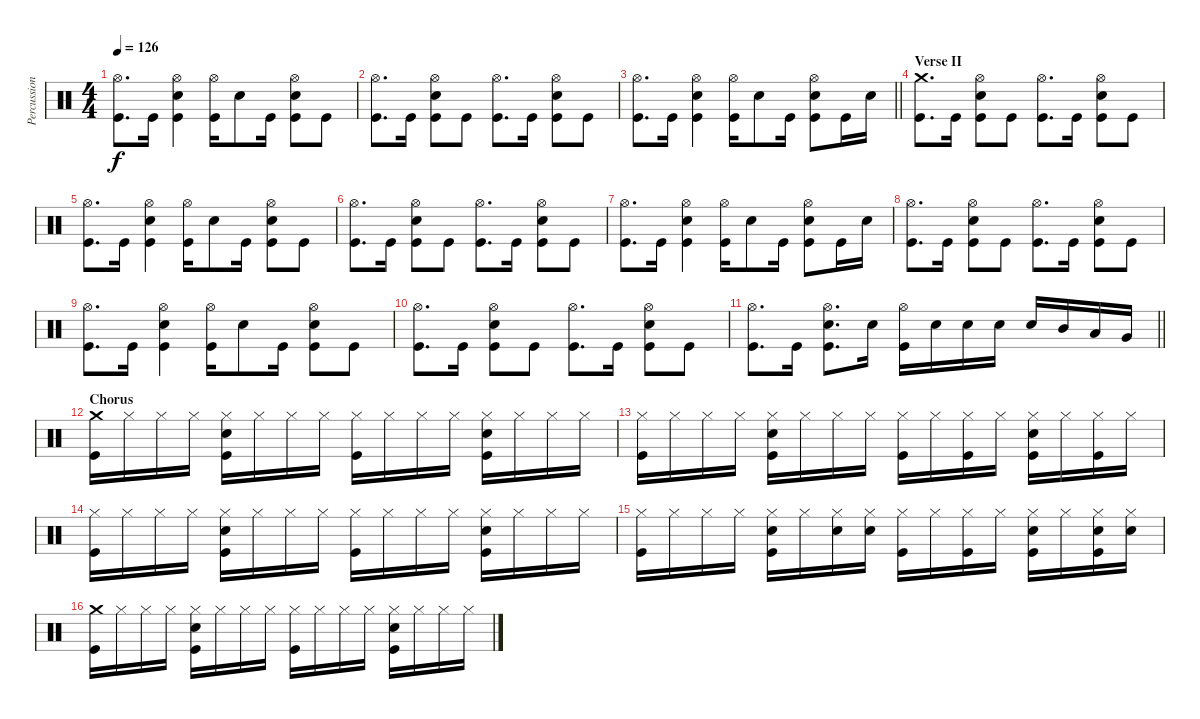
\track ("Percussion" "Percussion") {instrument percussion}
\staff {score}
\articulation defaults
\ts (4 4)
\tempo 126
\clef neutral
\ks c
("Hi-Hat (open)" "Kick (hit)").8{d dy f} "Kick (hit)".16 ("Hi-Hat (open)" "Electric Snare (hit)" "Kick (hit)").4 ("Hi-Hat (open)" "Kick (hit)").16 "Electric Snare (hit)".8 "Kick (hit)".16 ("Hi-Hat (open)" "Electric Snare (hit)" "Kick (hit)").8 "Kick (hit)".8 |
("Hi-Hat (open)" "Kick (hit)").8{d} "Kick (hit)".16 ("Hi-Hat (open)" "Electric Snare (hit)" "Kick (hit)").8 "Kick (hit)".8 ("Hi-Hat (open)" "Kick (hit)").8{d} "Kick (hit)".16 ("Hi-Hat (open)" "Electric Snare (hit)" "Kick (hit)").8 "Kick (hit)".8 |
\barLineRight lightlight
("Hi-Hat (open)" "Kick (hit)").8{d} "Kick (hit)".16 ("Hi-Hat (open)" "Electric Snare (hit)" "Kick (hit)").4 ("Hi-Hat (open)" "Kick (hit)").16 "Electric Snare (hit)".8 "Kick (hit)".16 ("Hi-Hat (open)" "Electric Snare (hit)" "Kick (hit)").8 "Kick (hit)".16 "Electric Snare (hit)".16 |
\section ("" "Verse II")
("Crash medium (hit)" "Kick (hit)").8{d} "Kick (hit)".16 ("Hi-Hat (open)" "Electric Snare (hit)" "Kick (hit)").8 "Kick (hit)".8 ("Hi-Hat (open)" "Kick (hit)").8{d} "Kick (hit)".16 ("Hi-Hat (open)" "Electric Snare (hit)" "Kick (hit)").8 "Kick (hit)".8 |
("Hi-Hat (open)" "Kick (hit)").8{d} "Kick (hit)".16 ("Hi-Hat (open)" "Electric Snare (hit)" "Kick (hit)").4 ("Hi-Hat (open)" "Kick (hit)").16 "Electric Snare (hit)".8 "Kick (hit)".16 ("Hi-Hat (open)" "Electric Snare (hit)" "Kick (hit)").8 "Kick (hit)".8 |
("Hi-Hat (open)" "Kick (hit)").8{d} "Kick (hit)".16 ("Hi-Hat (open)" "Electric Snare (hit)" "Kick (hit)").8 "Kick (hit)".8 ("Hi-Hat (open)" "Kick (hit)").8{d} "Kick (hit)".16 ("Hi-Hat (open)" "Electric Snare (hit)" "Kick (hit)").8 "Kick (hit)".8 |
("Hi-Hat (open)" "Kick (hit)").8{d} "Kick (hit)".16 ("Hi-Hat (open)" "Electric Snare (hit)" "Kick (hit)").4 ("Hi-Hat (open)" "Kick (hit)").16 "Electric Snare (hit)".8 "Kick (hit)".16 ("Hi-Hat (open)" "Electric Snare (hit)" "Kick (hit)").8 "Kick (hit)".16 "Electric Snare (hit)".16 |
("Hi-Hat (open)" "Kick (hit)").8{d} "Kick (hit)".16 ("Hi-Hat (open)" "Electric Snare (hit)" "Kick (hit)").8 "Kick (hit)".8 ("Hi-Hat (open)" "Kick (hit)").8{d} "Kick (hit)".16 ("Hi-Hat (open)" "Electric Snare (hit)" "Kick (hit)").8 "Kick (hit)".8 |
("Hi-Hat (open)" "Kick (hit)").8{d} "Kick (hit)".16 ("Hi-Hat (open)" "Electric Snare (hit)" "Kick (hit)").4 ("Hi-Hat (open)" "Kick (hit)").16 "Electric Snare (hit)".8 "Kick (hit)".16 ("Hi-Hat (open)" "Electric Snare (hit)" "Kick (hit)").8 "Kick (hit)".8 |
("Hi-Hat (open)" "Kick (hit)").8{d} "Kick (hit)".16 ("Hi-Hat (open)" "Electric Snare (hit)" "Kick (hit)").8 "Kick (hit)".8 ("Hi-Hat (open)" "Kick (hit)").8{d} "Kick (hit)".16 ("Hi-Hat (open)" "Electric Snare (hit)" "Kick (hit)").8 "Kick (hit)".8 |
\barLineRight lightlight
("Hi-Hat (open)" "Kick (hit)").8{d} "Kick (hit)".16 ("Hi-Hat (open)" "Electric Snare (hit)" "Kick (hit)").8{d} "Electric Snare (hit)".16 ("Hi-Hat (open)" "Kick (hit)").16 "Electric Snare (hit)".16 "Electric Snare (hit)".16 "Electric Snare (hit)".16 "Electric Snare (hit)".16 "Mid Tom (hit)".16 "Low Tom (hit)".16 "Very Low Tom (hit)".16 |
\section ("" "Chorus")
("Crash medium (hit)" "Kick (hit)").16 "Hi-Hat (closed)".16 "Hi-Hat (closed)".16 "Hi-Hat (closed)".16 ("Hi-Hat (closed)" "Electric Snare (hit)" "Kick (hit)").16 "Hi-Hat (closed)".16 "Hi-Hat (closed)".16 "Hi-Hat (closed)".16 ("Hi-Hat (closed)" "Kick (hit)").16 "Hi-Hat (closed)".16 "Hi-Hat (closed)".16 "Hi-Hat (closed)".16 ("Hi-Hat (closed)" "Electric Snare (hit)" "Kick (hit)").16 "Hi-Hat (closed)".16 "Hi-Hat (closed)".16 "Hi-Hat (closed)".16 |
("Hi-Hat (closed)" "Kick (hit)").16 "Hi-Hat (closed)".16 "Hi-Hat (closed)".16 "Hi-Hat (closed)".16 ("Hi-Hat (closed)" "Electric Snare (hit)" "Kick (hit)").16 "Hi-Hat (closed)".16 "Hi-Hat (closed)".16 "Hi-Hat (closed)".16 ("Hi-Hat (closed)" "Kick (hit)").16 "Hi-Hat (closed)".16 ("Hi-Hat (closed)" "Kick (hit)").16 "Hi-Hat (closed)".16 ("Hi-Hat (closed)" "Electric Snare (hit)" "Kick (hit)").16 "Hi-Hat (closed)".16 ("Hi-Hat (closed)" "Kick (hit)").16 "Hi-Hat (closed)".16 |
("Hi-Hat (closed)" "Kick (hit)").16 "Hi-Hat (closed)".16 "Hi-Hat (closed)".16 "Hi-Hat (closed)".16 ("Hi-Hat (closed)" "Electric Snare (hit)" "Kick (hit)").16 "Hi-Hat (closed)".16 "Hi-Hat (closed)".16 "Hi-Hat (closed)".16 ("Hi-Hat (closed)" "Kick (hit)").16 "Hi-Hat (closed)".16 "Hi-Hat (closed)".16 "Hi-Hat (closed)".16 ("Hi-Hat (closed)" "Electric Snare (hit)" "Kick (hit)").16 "Hi-Hat (closed)".16 "Hi-Hat (closed)".16 "Hi-Hat (closed)".16 |
("Hi-Hat (closed)" "Kick (hit)").16 "Hi-Hat (closed)".16 "Hi-Hat (closed)".16 "Hi-Hat (closed)".16 ("Hi-Hat (closed)" "Electric Snare (hit)" "Kick (hit)").16 "Hi-Hat (closed)".16 ("Hi-Hat (closed)" "Electric Snare (hit)").16 ("Hi-Hat (closed)" "Electric Snare (hit)").16 ("Hi-Hat (closed)" "Kick (hit)").16 "Hi-Hat (closed)".16 ("Hi-Hat (closed)" "Kick (hit)").16 "Hi-Hat (closed)".16 ("Hi-Hat (closed)" "Electric Snare (hit)" "Kick (hit)").16 "Hi-Hat (closed)".16 ("Hi-Hat (closed)" "Electric Snare (hit)" "Kick (hit)").16 ("Hi-Hat (closed)" "Electric Snare (hit)").16 |
("Crash medium (hit)" "Kick (hit)").16 "Hi-Hat (closed)".16 "Hi-Hat (closed)".16 "Hi-Hat (closed)".16 ("Hi-Hat (closed)" "Electric Snare (hit)" "Kick (hit)").16 "Hi-Hat (closed)".16 "Hi-Hat (closed)".16 "Hi-Hat (closed)".16 ("Hi-Hat (closed)" "Kick (hit)").16 "Hi-Hat (closed)".16 "Hi-Hat (closed)".16 "Hi-Hat (closed)".16 ("Hi-Hat (closed)" "Electric Snare (hit)" "Kick (hit)").16 "Hi-Hat (closed)".16 "Hi-Hat (closed)".16 "Hi-Hat (closed)".16
